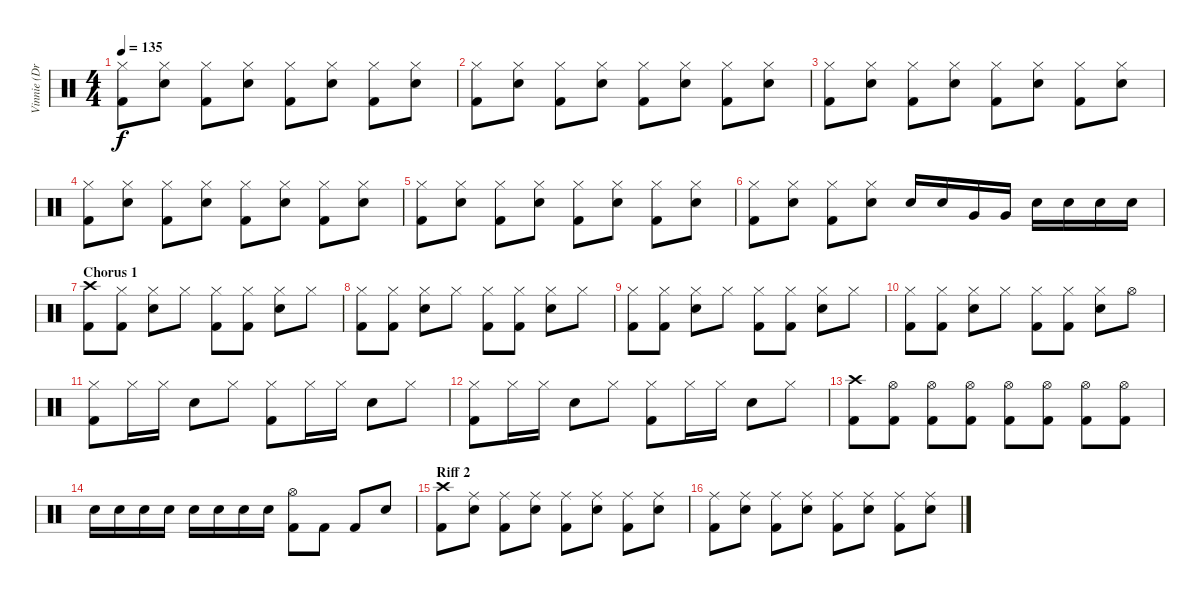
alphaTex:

\track ("Vinnie (Drums)" "Vinnie (Dr") {instrument percussion}
\staff {score}
\articulation defaults
\ts (4 4)
\tempo 135
\clef neutral
\ks c
("Hi-Hat (closed)" "Kick (hit) 2").8{dy f} ("Hi-Hat (closed)" "Snare (hit) 2").8 ("Hi-Hat (closed)" "Kick (hit) 2").8 ("Hi-Hat (closed)" "Snare (hit) 2").8 ("Hi-Hat (closed)" "Kick (hit) 2").8 ("Hi-Hat (closed)" "Snare (hit) 2").8 ("Hi-Hat (closed)" "Kick (hit) 2").8 ("Hi-Hat (closed)" "Snare (hit) 2").8 |
("Hi-Hat (closed)" "Kick (hit) 2").8 ("Hi-Hat (closed)" "Snare (hit) 2").8 ("Hi-Hat (closed)" "Kick (hit) 2").8 ("Hi-Hat (closed)" "Snare (hit) 2").8 ("Hi-Hat (closed)" "Kick (hit) 2").8 ("Hi-Hat (closed)" "Snare (hit) 2").8 ("Hi-Hat (closed)" "Kick (hit) 2").8 ("Hi-Hat (closed)" "Snare (hit) 2").8 |
("Hi-Hat (closed)" "Kick (hit) 2").8 ("Hi-Hat (closed)" "Snare (hit) 2").8 ("Hi-Hat (closed)" "Kick (hit) 2").8 ("Hi-Hat (closed)" "Snare (hit) 2").8 ("Hi-Hat (closed)" "Kick (hit) 2").8 ("Hi-Hat (closed)" "Snare (hit) 2").8 ("Hi-Hat (closed)" "Kick (hit) 2").8 ("Hi-Hat (closed)" "Snare (hit) 2").8 |
("Hi-Hat (closed)" "Kick (hit) 2").8 ("Hi-Hat (closed)" "Snare (hit) 2").8 ("Hi-Hat (closed)" "Kick (hit) 2").8 ("Hi-Hat (closed)" "Snare (hit) 2").8 ("Hi-Hat (closed)" "Kick (hit) 2").8 ("Hi-Hat (closed)" "Snare (hit) 2").8 ("Hi-Hat (closed)" "Kick (hit) 2").8 ("Hi-Hat (closed)" "Snare (hit) 2").8 |
("Hi-Hat (closed)" "Kick (hit) 2").8 ("Hi-Hat (closed)" "Snare (hit) 2").8 ("Hi-Hat (closed)" "Kick (hit) 2").8 ("Hi-Hat (closed)" "Snare (hit) 2").8 ("Hi-Hat (closed)" "Kick (hit) 2").8 ("Hi-Hat (closed)" "Snare (hit) 2").8 ("Hi-Hat (closed)" "Kick (hit) 2").8 ("Hi-Hat (closed)" "Snare (hit) 2").8 |
("Hi-Hat (closed)" "Kick (hit) 2").8 ("Hi-Hat (closed)" "Snare (hit) 2").8 ("Hi-Hat (closed)" "Kick (hit) 2").8 ("Hi-Hat (closed)" "Snare (hit) 2").8 "Snare (hit) 2".16 "Snare (hit) 2".16 "Very Low Tom (hit)".16 "Very Low Tom (hit)".16 "Snare (hit) 2".16 "Snare (hit) 2".16 "Snare (hit) 2".16 "Snare (hit) 2".16 |
\section ("" "Chorus 1")
("Crash high (hit)" "Kick (hit) 2").8 ("Hi-Hat (closed)" "Kick (hit) 2").8 ("Hi-Hat (closed)" "Snare (hit) 2").8 "Hi-Hat (closed)".8 ("Hi-Hat (closed)" "Kick (hit) 2").8 ("Hi-Hat (closed)" "Kick (hit) 2").8 ("Hi-Hat (closed)" "Snare (hit) 2").8 "Hi-Hat (closed)".8 |
("Hi-Hat (closed)" "Kick (hit) 2").8 ("Hi-Hat (closed)" "Kick (hit) 2").8 ("Hi-Hat (closed)" "Snare (hit) 2").8 "Hi-Hat (closed)".8 ("Hi-Hat (closed)" "Kick (hit) 2").8 ("Hi-Hat (closed)" "Kick (hit) 2").8 ("Hi-Hat (closed)" "Snare (hit) 2").8 "Hi-Hat (closed)".8 |
("Hi-Hat (closed)" "Kick (hit) 2").8 ("Hi-Hat (closed)" "Kick (hit) 2").8 ("Hi-Hat (closed)" "Snare (hit) 2").8 "Hi-Hat (closed)".8 ("Hi-Hat (closed)" "Kick (hit) 2").8 ("Hi-Hat (closed)" "Kick (hit) 2").8 ("Hi-Hat (closed)" "Snare (hit) 2").8 "Hi-Hat (closed)".8 |
("Hi-Hat (closed)" "Kick (hit) 2").8 ("Hi-Hat (closed)" "Kick (hit) 2").8 ("Hi-Hat (closed)" "Snare (hit) 2").8 "Hi-Hat (closed)".8 ("Hi-Hat (closed)" "Kick (hit) 2").8 ("Hi-Hat (closed)" "Kick (hit) 2").8 ("Hi-Hat (closed)" "Snare (hit) 2").8 "Hi-Hat (open)".8 |
("Hi-Hat (closed)" "Kick (hit) 2").8 "Hi-Hat (closed)".16 "Hi-Hat (closed)".16 "Snare (hit) 2".8 "Hi-Hat (closed)".8 ("Hi-Hat (closed)" "Kick (hit) 2").8 "Hi-Hat (closed)".16 "Hi-Hat (closed)".16 "Snare (hit) 2".8 "Hi-Hat (closed)".8 |
("Hi-Hat (closed)" "Kick (hit) 2").8 "Hi-Hat (closed)".16 "Hi-Hat (closed)".16 "Snare (hit) 2".8 "Hi-Hat (closed)".8 ("Hi-Hat (closed)" "Kick (hit) 2").8 "Hi-Hat (closed)".16 "Hi-Hat (closed)".16 "Snare (hit) 2".8 "Hi-Hat (closed)".8 |
("Crash high (hit)" "Kick (hit) 2").8 ("Hi-Hat (open)" "Kick (hit) 2").8 ("Hi-Hat (open)" "Kick (hit) 2").8 ("Hi-Hat (open)" "Kick (hit) 2").8 ("Hi-Hat (open)" "Kick (hit) 2").8 ("Hi-Hat (open)" "Kick (hit) 2").8 ("Hi-Hat (open)" "Kick (hit) 2").8 ("Hi-Hat (open)" "Kick (hit) 2").8 |
"Snare (hit) 2".16 "Snare (hit) 2".16 "Snare (hit) 2".16 "Snare (hit) 2".16 "Snare (hit) 2".16 "Snare (hit) 2".16 "Snare (hit) 2".16 "Snare (hit) 2".16 ("Hi-Hat (open)" "Kick (hit) 2").8 "Kick (hit) 2".8 "Kick (hit) 2".8 "Snare (hit) 2".8 |
\section ("" "Riff 2")
("Crash high (hit)" "Kick (hit) 2").8 ("Ride (middle)" "Snare (hit) 2").8 ("Ride (middle)" "Kick (hit) 2").8 ("Ride (middle)" "Snare (hit) 2").8 ("Ride (middle)" "Kick (hit) 2").8 ("Ride (middle)" "Snare (hit) 2").8 ("Ride (middle)" "Kick (hit) 2").8 ("Ride (middle)" "Snare (hit) 2").8 |
("Ride (middle)" "Kick (hit) 2").8 ("Ride (middle)" "Snare (hit) 2").8 ("Ride (middle)" "Kick (hit) 2").8 ("Ride (middle)" "Snare (hit) 2").8 ("Ride (middle)" "Kick (hit) 2").8 ("Ride (middle)" "Snare (hit) 2").8 ("Ride (middle)" "Kick (hit) 2").8 ("Ride (middle)" "Snare (hit) 2").8
